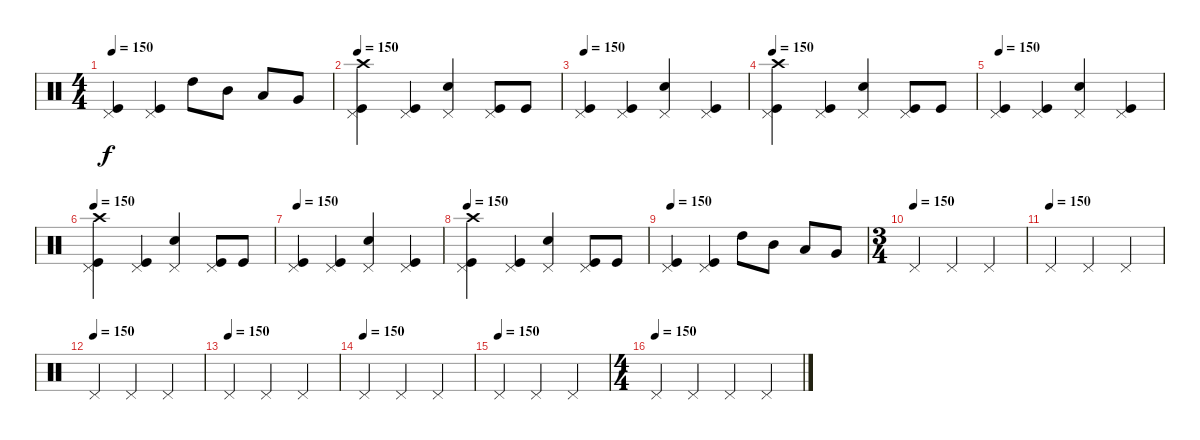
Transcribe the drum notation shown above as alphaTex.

\track "" {instrument percussion}
\staff {score}
\articulation defaults
\ts (4 4)
\tempo 150
\clef neutral
\ks c
("Pedal Hi-Hat (hit)" "Kick (hit)").4{dy f} ("Pedal Hi-Hat (hit)" "Kick (hit)").4 "High Tom (hit)".8 "Mid Tom (hit)".8 "Low Tom (hit)".8 "Very Low Tom (hit)".8 |
\tempo 150
("Pedal Hi-Hat (hit)" "Crash high (hit)" "Kick (hit)").4 ("Pedal Hi-Hat (hit)" "Kick (hit)").4 ("Pedal Hi-Hat (hit)" "Snare (hit) 2").4 ("Pedal Hi-Hat (hit)" "Kick (hit)").8 "Kick (hit)".8 |
\tempo 150
("Pedal Hi-Hat (hit)" "Kick (hit)").4 ("Pedal Hi-Hat (hit)" "Kick (hit)").4 ("Pedal Hi-Hat (hit)" "Snare (hit) 2").4 ("Pedal Hi-Hat (hit)" "Kick (hit)").4 |
\tempo 150
("Pedal Hi-Hat (hit)" "Crash high (hit)" "Kick (hit)").4 ("Pedal Hi-Hat (hit)" "Kick (hit)").4 ("Pedal Hi-Hat (hit)" "Snare (hit) 2").4 ("Pedal Hi-Hat (hit)" "Kick (hit)").8 "Kick (hit)".8 |
\tempo 150
("Pedal Hi-Hat (hit)" "Kick (hit)").4 ("Pedal Hi-Hat (hit)" "Kick (hit)").4 ("Pedal Hi-Hat (hit)" "Snare (hit) 2").4 ("Pedal Hi-Hat (hit)" "Kick (hit)").4 |
\tempo 150
("Pedal Hi-Hat (hit)" "Crash high (hit)" "Kick (hit)").4 ("Pedal Hi-Hat (hit)" "Kick (hit)").4 ("Pedal Hi-Hat (hit)" "Snare (hit) 2").4 ("Pedal Hi-Hat (hit)" "Kick (hit)").8 "Kick (hit)".8 |
\tempo 150
("Pedal Hi-Hat (hit)" "Kick (hit)").4 ("Pedal Hi-Hat (hit)" "Kick (hit)").4 ("Pedal Hi-Hat (hit)" "Snare (hit) 2").4 ("Pedal Hi-Hat (hit)" "Kick (hit)").4 |
\tempo 150
("Pedal Hi-Hat (hit)" "Crash high (hit)" "Kick (hit)").4 ("Pedal Hi-Hat (hit)" "Kick (hit)").4 ("Pedal Hi-Hat (hit)" "Snare (hit) 2").4 ("Pedal Hi-Hat (hit)" "Kick (hit)").8 "Kick (hit)".8 |
\tempo 150
("Pedal Hi-Hat (hit)" "Kick (hit)").4 ("Pedal Hi-Hat (hit)" "Kick (hit)").4 "High Tom (hit)".8 "Mid Tom (hit)".8 "Low Tom (hit)".8 "Very Low Tom (hit)".8 |
\ts (3 4)
\tempo (150)
"Pedal Hi-Hat (hit)".4 "Pedal Hi-Hat (hit)".4 "Pedal Hi-Hat (hit)".4 |
\tempo (150)
"Pedal Hi-Hat (hit)".4 "Pedal Hi-Hat (hit)".4 "Pedal Hi-Hat (hit)".4 |
\tempo (150)
"Pedal Hi-Hat (hit)".4 "Pedal Hi-Hat (hit)".4 "Pedal Hi-Hat (hit)".4 |
\tempo (150)
"Pedal Hi-Hat (hit)".4 "Pedal Hi-Hat (hit)".4 "Pedal Hi-Hat (hit)".4 |
\tempo (150)
"Pedal Hi-Hat (hit)".4 "Pedal Hi-Hat (hit)".4 "Pedal Hi-Hat (hit)".4 |
\tempo (150)
"Pedal Hi-Hat (hit)".4 "Pedal Hi-Hat (hit)".4 "Pedal Hi-Hat (hit)".4 |
\ts (4 4)
\tempo (150)
"Pedal Hi-Hat (hit)".4 "Pedal Hi-Hat (hit)".4 "Pedal Hi-Hat (hit)".4 "Pedal Hi-Hat (hit)".4
